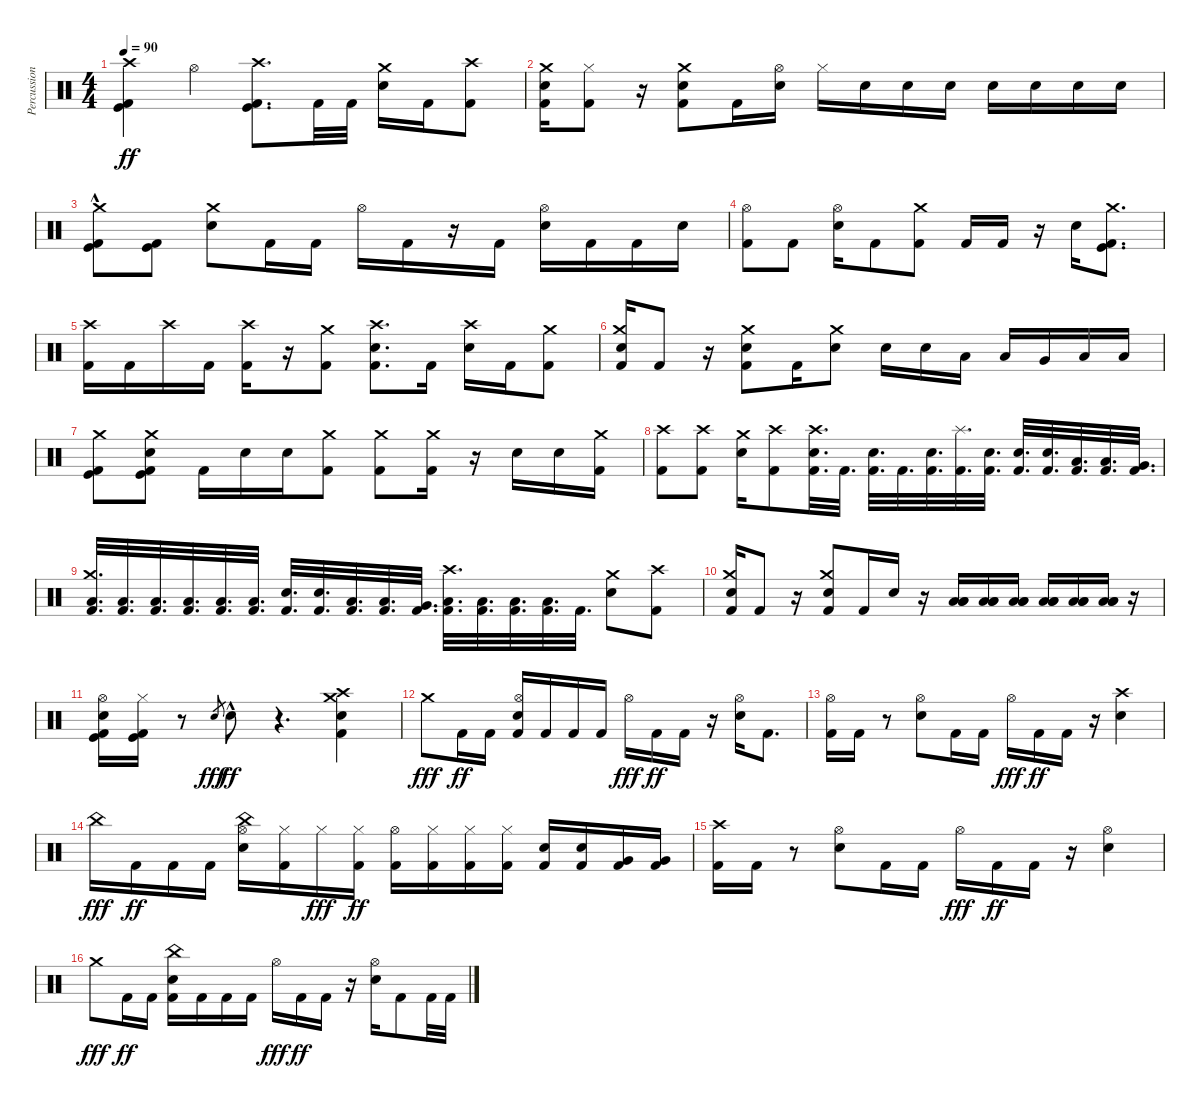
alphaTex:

\track ("Percussion" "Percussion") {instrument percussion}
\staff {score}
\articulation defaults
\ts (4 4)
\tempo 90
\clef neutral
\ks c
("Crash high (hit)" "Kick (hit)" "Kick (hit) 2").4{dy ff} "Hi-Hat (open)".4 ("Crash high (hit)" "Kick (hit)" "Kick (hit) 2").8{d} "Kick (hit) 2".32 "Kick (hit) 2".32 ("Crash medium (hit)" "Electric Snare (hit)").16 "Kick (hit) 2".16 ("Crash high (hit)" "Kick (hit) 2").8 |
("Crash medium (hit)" "Electric Snare (hit)" "Kick (hit) 2").16 ("Hi-Hat (closed)" "Kick (hit) 2").8 r.16 ("Crash medium (hit)" "Electric Snare (hit)" "Kick (hit) 2").8 "Kick (hit) 2".16 ("Hi-Hat (open)" "Electric Snare (hit)").16 "Hi-Hat (closed)".16 "Electric Snare (hit)".16 "Electric Snare (hit)".16 "Electric Snare (hit)".16 "Electric Snare (hit)".16 "Electric Snare (hit)".16 "Electric Snare (hit)".16 "Electric Snare (hit)".16 |
("Crash medium (hit)"{hac} "Kick (hit)" "Kick (hit) 2").8 ("Kick (hit)" "Kick (hit) 2").8 ("Crash medium (hit)" "Electric Snare (hit)").8 "Kick (hit) 2".16 "Kick (hit) 2".16 "Hi-Hat (open)".16 "Kick (hit) 2".16 r.16 "Kick (hit) 2".16 ("Hi-Hat (open)" "Electric Snare (hit)").16 "Kick (hit) 2".16 "Kick (hit) 2".16 "Electric Snare (hit)".16 |
("Hi-Hat (open)" "Kick (hit) 2").8 "Kick (hit) 2".8 ("Hi-Hat (open)" "Electric Snare (hit)").16 "Kick (hit) 2".8 ("Crash medium (hit)" "Kick (hit) 2").8 "Kick (hit) 2".16 "Kick (hit) 2".16 r.16 "Electric Snare (hit)".16 ("Crash medium (hit)" "Kick (hit)" "Kick (hit) 2").8{d} |
("Crash high (hit)" "Kick (hit) 2").16 "Kick (hit) 2".16 "Crash high (hit)".16 "Kick (hit) 2".16 ("Crash high (hit)" "Kick (hit) 2").16 r.16 ("Crash medium (hit)" "Kick (hit) 2").8 ("Crash high (hit)" "Electric Snare (hit)" "Kick (hit) 2").8{d} "Kick (hit) 2".16 ("Crash high (hit)" "Electric Snare (hit)").16 "Kick (hit) 2".16 ("Crash medium (hit)" "Kick (hit) 2").8 |
("Crash medium (hit)" "Electric Snare (hit)" "Kick (hit) 2").16 "Kick (hit) 2".8 r.16 ("Crash medium (hit)" "Electric Snare (hit)" "Kick (hit) 2").8 "Kick (hit) 2".16 ("Crash medium (hit)" "Electric Snare (hit)").8 "Electric Snare (hit)".16 "Electric Snare (hit)".16 "Low Tom (hit)".16 "Low Tom (hit)".16 "Very Low Tom (hit)".16 "Low Floor Tom (hit)".16 "Low Tom (hit)".16 |
("Crash medium (hit)" "Kick (hit)" "Kick (hit) 2").8 ("Crash medium (hit)" "Electric Snare (hit)" "Kick (hit)" "Kick (hit) 2").8 "Kick (hit) 2".16 "Electric Snare (hit)".16 "Electric Snare (hit)".16 ("Crash medium (hit)" "Kick (hit) 2").8 ("Crash medium (hit)" "Kick (hit) 2").8 ("Crash medium (hit)" "Kick (hit) 2").16 r.16 "Electric Snare (hit)".16 "Electric Snare (hit)".16 ("Crash medium (hit)" "Kick (hit) 2").16 |
("Crash high (hit)" "Kick (hit) 2").8 ("Crash high (hit)" "Kick (hit) 2").8 ("Crash medium (hit)" "Electric Snare (hit)").16 ("Crash high (hit)" "Kick (hit) 2").8 ("Crash high (hit)" "Electric Snare (hit)" "Kick (hit) 2").32{d} "Kick (hit) 2".32{d} ("Electric Snare (hit)" "Kick (hit) 2").32{d} "Kick (hit) 2".32{d} ("Electric Snare (hit)" "Kick (hit) 2").32{d} ("Splash (hit)" "Kick (hit) 2").32{d} ("Electric Snare (hit)" "Kick (hit) 2").32{d} ("Electric Snare (hit)" "Kick (hit) 2").32{d} ("Electric Snare (hit)" "Kick (hit) 2").32{d} ("Low Tom (hit)" "Kick (hit) 2").32{d} ("Low Tom (hit)" "Kick (hit) 2").32{d} ("Very Low Tom (hit)" "Kick (hit) 2").32{d} |
("Crash medium (hit)" "Low Floor Tom (hit)" "Kick (hit) 2").32{d} ("Low Floor Tom (hit)" "Kick (hit) 2").32{d} ("Low Floor Tom (hit)" "Kick (hit) 2").32{d} ("Low Floor Tom (hit)" "Kick (hit) 2").32{d} ("Low Floor Tom (hit)" "Kick (hit) 2").32{d} ("Low Floor Tom (hit)" "Kick (hit) 2").32{d} ("Electric Snare (hit)" "Kick (hit) 2").32{d} ("Electric Snare (hit)" "Kick (hit) 2").32{d} ("Low Tom (hit)" "Kick (hit) 2").32{d} ("Low Tom (hit)" "Kick (hit) 2").32{d} ("Very Low Tom (hit)" "Kick (hit) 2").32{d} ("Crash high (hit)" "Low Floor Tom (hit)" "Kick (hit) 2").32{d} ("Low Floor Tom (hit)" "Kick (hit) 2").32{d} ("Low Floor Tom (hit)" "Kick (hit) 2").32{d} ("Low Floor Tom (hit)" "Kick (hit) 2").32{d} "Kick (hit) 2".32{d} ("Crash medium (hit)" "Electric Snare (hit)").8 ("Crash high (hit)" "Kick (hit) 2").8 |
("Crash medium (hit)" "Electric Snare (hit)" "Kick (hit) 2").16 "Kick (hit) 2".8 r.16 ("Crash medium (hit)" "Electric Snare (hit)" "Kick (hit) 2").8 "Kick (hit) 2".16 "Electric Snare (hit)".16 r.16 ("Low Tom (hit)" "Low Floor Tom (hit)" "Low Floor Tom (hit)").16 ("Low Tom (hit)" "Low Floor Tom (hit)" "Low Floor Tom (hit)").16 ("Low Tom (hit)" "Low Floor Tom (hit)" "Low Floor Tom (hit)").16 ("Low Tom (hit)" "Low Floor Tom (hit)" "Low Floor Tom (hit)").16 ("Low Tom (hit)" "Low Floor Tom (hit)" "Low Floor Tom (hit)").16 ("Low Tom (hit)" "Low Floor Tom (hit)" "Low Floor Tom (hit)").16 r.16 |
("Hi-Hat (open)" "Electric Snare (hit)" "Kick (hit)" "Kick (hit) 2").16 ("Hi-Hat (closed)" "Kick (hit) 2" "Kick (hit)").16 r.8 "Electric Snare (hit)"{h}.8{gr dy fff} "Electric Snare (hit)"{hac}.8{dy ff} r.4{d} ("Crash medium (hit)" "Crash high (hit)" "Electric Snare (hit)" "Kick (hit) 2").4 |
"Crash medium (hit)".8{dy fff} "Kick (hit) 2".16{dy ff} "Kick (hit) 2".16 ("Hi-Hat (open)" "Electric Snare (hit)" "Kick (hit) 2").16 "Kick (hit) 2".16 "Kick (hit) 2".16 "Kick (hit) 2".16 "Hi-Hat (open)".16{dy fff} "Kick (hit) 2".16{dy ff} "Kick (hit) 2".16 r.16 ("Hi-Hat (open)" "Electric Snare (hit)").16 "Kick (hit) 2".8{d} |
("Hi-Hat (open)" "Kick (hit) 2").16 "Kick (hit) 2".16 r.8 ("Hi-Hat (open)" "Electric Snare (hit)").8 "Kick (hit) 2".16 "Kick (hit) 2".16 "Hi-Hat (open)".16{dy fff} "Kick (hit) 2".16{dy ff} "Kick (hit) 2".16 r.16 ("Crash high (hit)" "Electric Snare (hit)").4 |
"China (hit)".16{dy fff} "Kick (hit) 2".16{dy ff} "Kick (hit) 2".16 "Kick (hit) 2".16 ("China (hit)" "Hi-Hat (open)" "Electric Snare (hit)").16 ("Hi-Hat (closed)" "Kick (hit) 2").16 "Hi-Hat (closed)".16{dy fff} ("Hi-Hat (closed)" "Kick (hit) 2").16{dy ff} ("Hi-Hat (open)" "Kick (hit) 2").16 ("Hi-Hat (closed)" "Kick (hit) 2").16 ("Hi-Hat (closed)" "Kick (hit) 2").16 ("Hi-Hat (closed)" "Kick (hit) 2").16 ("Electric Snare (hit)" "Kick (hit) 2").16 ("Electric Snare (hit)" "Kick (hit) 2").16 ("Very Low Tom (hit)" "Kick (hit) 2").16 ("Very Low Tom (hit)" "Kick (hit) 2").16 |
("Crash high (hit)" "Kick (hit) 2").16 "Kick (hit) 2".16 r.8 ("Hi-Hat (open)" "Electric Snare (hit)").8 "Kick (hit) 2".16 "Kick (hit) 2".16 "Hi-Hat (open)".16{dy fff} "Kick (hit) 2".16{dy ff} "Kick (hit) 2".16 r.16 ("Hi-Hat (open)" "Electric Snare (hit)").4 |
"Crash medium (hit)".8{dy fff} "Kick (hit) 2".16{dy ff} "Kick (hit) 2".16 ("China (hit)" "Electric Snare (hit)" "Kick (hit) 2").16 "Kick (hit) 2".16 "Kick (hit) 2".16 "Kick (hit) 2".16 "Hi-Hat (open)".16{dy fff} "Kick (hit) 2".16{dy ff} "Kick (hit) 2".16 r.16 ("Hi-Hat (open)" "Electric Snare (hit)").16 "Kick (hit) 2".8 "Kick (hit) 2".32 "Kick (hit) 2".32
